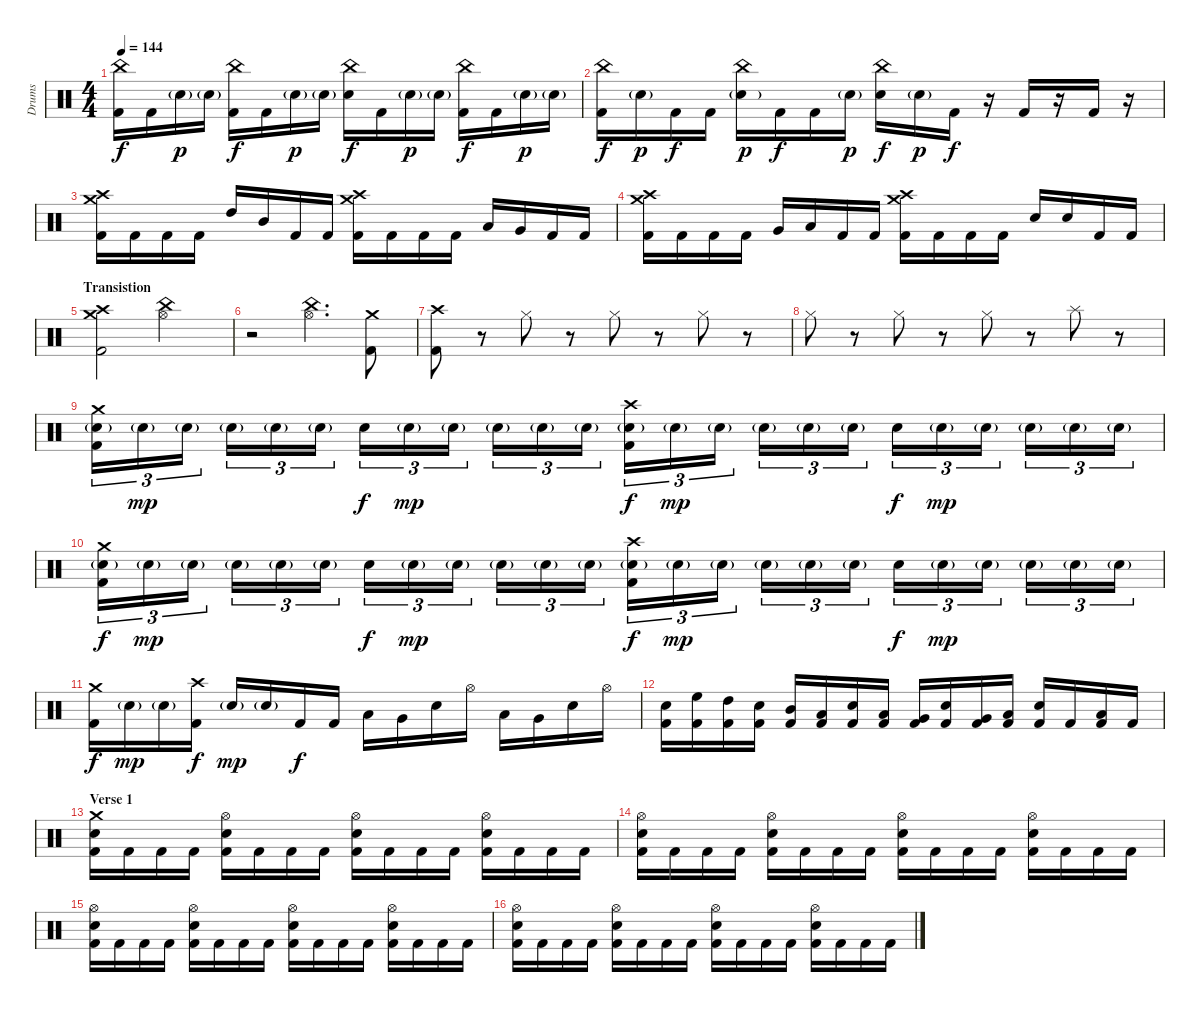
\track ("Drums" "Drums") {instrument percussion}
\staff {score}
\articulation defaults
\ts (4 4)
\tempo 144
\clef neutral
\ks c
("China (hit)" "Kick (hit) 2").16{dy f} "Kick (hit) 2".16 "Snare (hit) 2"{g}.16{dy p} "Snare (hit) 2"{g}.16 ("China (hit)" "Kick (hit) 2").16{dy f} "Kick (hit) 2".16 "Snare (hit) 2"{g}.16{dy p} "Snare (hit) 2"{g}.16 ("China (hit)" "Electric Snare (hit)").16{dy f} "Kick (hit) 2".16 "Snare (hit) 2"{g}.16{dy p} "Snare (hit) 2"{g}.16 ("China (hit)" "Kick (hit) 2").16{dy f} "Kick (hit) 2".16 "Snare (hit) 2"{g}.16{dy p} "Snare (hit) 2"{g}.16 |
("China (hit)" "Kick (hit) 2").16{dy f} "Snare (hit) 2"{g}.16{dy p} "Kick (hit) 2".16{dy f} "Kick (hit) 2".16 ("China (hit)" "Snare (hit) 2"{g}).16{dy p} "Kick (hit) 2".16{dy f} "Kick (hit) 2".16 "Snare (hit) 2"{g}.16{dy p} ("China (hit)" "Electric Snare (hit)").16{dy f} "Snare (hit) 2"{g}.16{dy p} "Kick (hit) 2".16{dy f} r.16 "Kick (hit) 2".16 r.16 "Kick (hit) 2".16 r.16 |
("Crash medium (hit)" "Crash high (hit)" "Kick (hit) 2").16 "Kick (hit) 2".16 "Kick (hit) 2".16 "Kick (hit) 2".16 "High Tom (hit)".16 "Mid Tom (hit)".16 "Kick (hit) 2".16 "Kick (hit) 2".16 ("Crash medium (hit)" "Crash high (hit)" "Kick (hit) 2").16 "Kick (hit) 2".16 "Kick (hit) 2".16 "Kick (hit) 2".16 "Low Tom (hit)".16 "Very Low Tom (hit)".16 "Kick (hit) 2".16 "Kick (hit) 2".16 |
("Crash medium (hit)" "Crash high (hit)" "Kick (hit) 2").16 "Kick (hit) 2".16 "Kick (hit) 2".16 "Kick (hit) 2".16 "Very Low Tom (hit)".16 "Low Floor Tom (hit)".16 "Kick (hit) 2".16 "Kick (hit) 2".16 ("Crash medium (hit)" "Crash high (hit)" "Kick (hit) 2").16 "Kick (hit) 2".16 "Kick (hit) 2".16 "Kick (hit) 2".16 "Electric Snare (hit)".16 "Electric Snare (hit)".16 "Kick (hit) 2".16 "Kick (hit) 2".16 |
\section ("" "Transistion")
("Crash medium (hit)" "Crash high (hit)" "Kick (hit) 2").2 ("China (hit)" "Hi-Hat (open)").2 |
r.2 ("China (hit)" "Hi-Hat (open)").4{d} ("Crash medium (hit)" "Kick (hit) 2").8 |
("Crash high (hit)" "Kick (hit) 2").8 r.8 "Hi-Hat (closed)".8 r.8 "Hi-Hat (closed)".8 r.8 "Hi-Hat (closed)".8 r.8 |
"Hi-Hat (closed)".8 r.8 "Hi-Hat (closed)".8 r.8 "Hi-Hat (closed)".8 r.8 "Splash (hit)".8 r.8 |
("Crash medium (hit)" "Snare (hit) 2"{g} "Kick (hit) 2").16{tu (3 2)} "Snare (hit) 2"{g}.16{tu (3 2) dy mp} "Snare (hit) 2"{g}.16{tu (3 2)} "Snare (hit) 2"{g}.16{tu (3 2)} "Snare (hit) 2"{g}.16{tu (3 2)} "Snare (hit) 2"{g}.16{tu (3 2)} "Electric Snare (hit)".16{tu (3 2) dy f} "Snare (hit) 2"{g}.16{tu (3 2) dy mp} "Snare (hit) 2"{g}.16{tu (3 2)} "Snare (hit) 2"{g}.16{tu (3 2)} "Snare (hit) 2"{g}.16{tu (3 2)} "Snare (hit) 2"{g}.16{tu (3 2)} ("Crash high (hit)" "Snare (hit) 2"{g} "Kick (hit) 2").16{tu (3 2) dy f} "Snare (hit) 2"{g}.16{tu (3 2) dy mp} "Snare (hit) 2"{g}.16{tu (3 2)} "Snare (hit) 2"{g}.16{tu (3 2)} "Snare (hit) 2"{g}.16{tu (3 2)} "Snare (hit) 2"{g}.16{tu (3 2)} "Electric Snare (hit)".16{tu (3 2) dy f} "Snare (hit) 2"{g}.16{tu (3 2) dy mp} "Snare (hit) 2"{g}.16{tu (3 2)} "Snare (hit) 2"{g}.16{tu (3 2)} "Snare (hit) 2"{g}.16{tu (3 2)} "Snare (hit) 2"{g}.16{tu (3 2)} |
("Crash medium (hit)" "Snare (hit) 2"{g} "Kick (hit) 2").16{tu (3 2) dy f} "Snare (hit) 2"{g}.16{tu (3 2) dy mp} "Snare (hit) 2"{g}.16{tu (3 2)} "Snare (hit) 2"{g}.16{tu (3 2)} "Snare (hit) 2"{g}.16{tu (3 2)} "Snare (hit) 2"{g}.16{tu (3 2)} "Electric Snare (hit)".16{tu (3 2) dy f} "Snare (hit) 2"{g}.16{tu (3 2) dy mp} "Snare (hit) 2"{g}.16{tu (3 2)} "Snare (hit) 2"{g}.16{tu (3 2)} "Snare (hit) 2"{g}.16{tu (3 2)} "Snare (hit) 2"{g}.16{tu (3 2)} ("Crash high (hit)" "Snare (hit) 2"{g} "Kick (hit) 2").16{tu (3 2) dy f} "Snare (hit) 2"{g}.16{tu (3 2) dy mp} "Snare (hit) 2"{g}.16{tu (3 2)} "Snare (hit) 2"{g}.16{tu (3 2)} "Snare (hit) 2"{g}.16{tu (3 2)} "Snare (hit) 2"{g}.16{tu (3 2)} "Electric Snare (hit)".16{tu (3 2) dy f} "Snare (hit) 2"{g}.16{tu (3 2) dy mp} "Snare (hit) 2"{g}.16{tu (3 2)} "Snare (hit) 2"{g}.16{tu (3 2)} "Snare (hit) 2"{g}.16{tu (3 2)} "Snare (hit) 2"{g}.16{tu (3 2)} |
("Crash medium (hit)" "Kick (hit) 2").16{dy f} "Snare (hit) 2"{g}.16{dy mp} "Snare (hit) 2"{g}.16 ("Crash high (hit)" "Kick (hit) 2").16{dy f} "Snare (hit) 2"{g}.16{dy mp} "Snare (hit) 2"{g}.16 "Kick (hit) 2".16{dy f} "Kick (hit) 2".16 "Low Tom (hit)".16 "Very Low Tom (hit)".16 "Electric Snare (hit)".16 "Hi-Hat (open)".16 "Low Tom (hit)".16 "Very Low Tom (hit)".16 "Electric Snare (hit)".16 "Hi-Hat (open)".16 |
("Electric Snare (hit)" "Kick (hit) 2").16 ("High Floor Tom (hit)" "Kick (hit) 2").16 ("High Tom (hit)" "Kick (hit) 2").16 ("Electric Snare (hit)" "Kick (hit) 2").16 ("Mid Tom (hit)" "Kick (hit) 2").16 ("Low Tom (hit)" "Kick (hit) 2").16 ("Electric Snare (hit)" "Kick (hit) 2").16 ("Low Tom (hit)" "Kick (hit) 2").16 ("Very Low Tom (hit)" "Kick (hit) 2").16 ("Electric Snare (hit)" "Kick (hit) 2").16 ("Very Low Tom (hit)" "Kick (hit) 2").16 ("Low Floor Tom (hit)" "Kick (hit) 2").16 ("Electric Snare (hit)" "Kick (hit) 2").16 "Kick (hit) 2".16 ("Low Floor Tom (hit)" "Kick (hit) 2").16 "Kick (hit) 2".16 |
\section ("" "Verse 1")
("Crash medium (hit)" "Electric Snare (hit)" "Kick (hit) 2").16 "Kick (hit) 2".16 "Kick (hit) 2".16 "Kick (hit) 2".16 ("Hi-Hat (open)" "Electric Snare (hit)" "Kick (hit) 2").16 "Kick (hit) 2".16 "Kick (hit) 2".16 "Kick (hit) 2".16 ("Hi-Hat (open)" "Electric Snare (hit)" "Kick (hit) 2").16 "Kick (hit) 2".16 "Kick (hit) 2".16 "Kick (hit) 2".16 ("Hi-Hat (open)" "Electric Snare (hit)" "Kick (hit) 2").16 "Kick (hit) 2".16 "Kick (hit) 2".16 "Kick (hit) 2".16 |
("Hi-Hat (open)" "Electric Snare (hit)" "Kick (hit) 2").16 "Kick (hit) 2".16 "Kick (hit) 2".16 "Kick (hit) 2".16 ("Hi-Hat (open)" "Electric Snare (hit)" "Kick (hit) 2").16 "Kick (hit) 2".16 "Kick (hit) 2".16 "Kick (hit) 2".16 ("Hi-Hat (open)" "Electric Snare (hit)" "Kick (hit) 2").16 "Kick (hit) 2".16 "Kick (hit) 2".16 "Kick (hit) 2".16 ("Hi-Hat (open)" "Electric Snare (hit)" "Kick (hit) 2").16 "Kick (hit) 2".16 "Kick (hit) 2".16 "Kick (hit) 2".16 |
("Hi-Hat (open)" "Electric Snare (hit)" "Kick (hit) 2").16 "Kick (hit) 2".16 "Kick (hit) 2".16 "Kick (hit) 2".16 ("Hi-Hat (open)" "Electric Snare (hit)" "Kick (hit) 2").16 "Kick (hit) 2".16 "Kick (hit) 2".16 "Kick (hit) 2".16 ("Hi-Hat (open)" "Electric Snare (hit)" "Kick (hit) 2").16 "Kick (hit) 2".16 "Kick (hit) 2".16 "Kick (hit) 2".16 ("Hi-Hat (open)" "Electric Snare (hit)" "Kick (hit) 2").16 "Kick (hit) 2".16 "Kick (hit) 2".16 "Kick (hit) 2".16 |
("Hi-Hat (open)" "Electric Snare (hit)" "Kick (hit) 2").16 "Kick (hit) 2".16 "Kick (hit) 2".16 "Kick (hit) 2".16 ("Hi-Hat (open)" "Electric Snare (hit)" "Kick (hit) 2").16 "Kick (hit) 2".16 "Kick (hit) 2".16 "Kick (hit) 2".16 ("Hi-Hat (open)" "Electric Snare (hit)" "Kick (hit) 2").16 "Kick (hit) 2".16 "Kick (hit) 2".16 "Kick (hit) 2".16 ("Hi-Hat (open)" "Electric Snare (hit)" "Kick (hit) 2").16 "Kick (hit) 2".16 "Kick (hit) 2".16 "Kick (hit) 2".16
